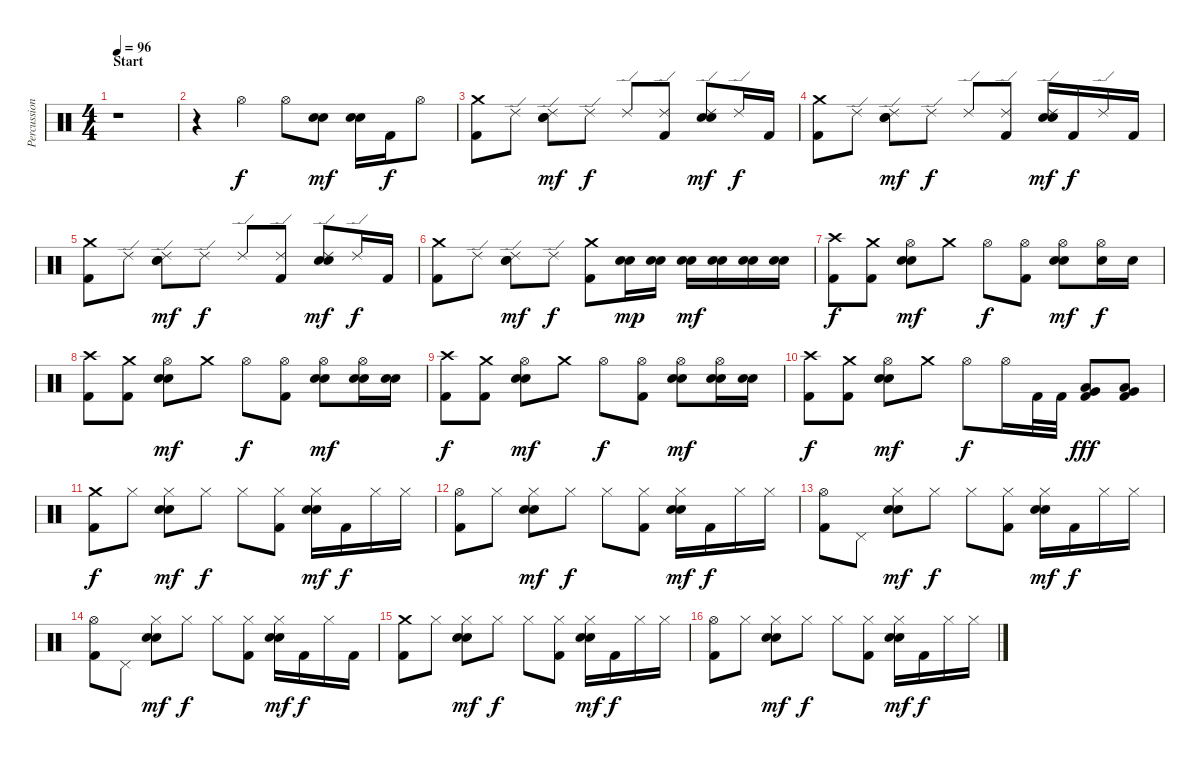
\track ("Percussions" "Percussion") {instrument percussion}
\staff {score}
\articulation defaults
\ts (4 4)
\section ("" "Start")
\tempo 96
\clef neutral
\ks c
r.1{dy f} |
r.4 "Hi-Hat (open)".4 "Hi-Hat (open)".8 ("Snare (hit) 2" "Electric Snare (hit)").8{dy mf} ("Snare (hit) 2" "Electric Snare (hit)").16 "Kick (hit) 2".16{dy f} "Hi-Hat (open)".8 |
("Crash medium (hit)" "Kick (hit) 2").8 "Ride (edge) 2".8 ("Ride (edge) 2" "Snare (hit) 2" "Electric Snare (hit)").8{dy mf} "Ride (edge) 2".8{dy f} "Ride (edge) 2".8 ("Ride (edge) 2" "Kick (hit) 2").8 ("Ride (edge) 2" "Snare (hit) 2" "Electric Snare (hit)").8{dy mf} "Ride (edge) 2".16{dy f} "Kick (hit) 2".16 |
("Crash medium (hit)" "Kick (hit) 2").8 "Ride (edge) 2".8 ("Ride (edge) 2" "Snare (hit) 2" "Electric Snare (hit)").8{dy mf} "Ride (edge) 2".8{dy f} "Ride (edge) 2".8 ("Ride (edge) 2" "Kick (hit) 2").8 ("Ride (edge) 2" "Snare (hit) 2" "Electric Snare (hit)").16{dy mf} "Kick (hit) 2".16{dy f} "Ride (edge) 2".16 "Kick (hit) 2".16 |
("Crash medium (hit)" "Kick (hit) 2").8 "Ride (edge) 2".8 ("Ride (edge) 2" "Snare (hit) 2" "Electric Snare (hit)").8{dy mf} "Ride (edge) 2".8{dy f} "Ride (edge) 2".8 ("Ride (edge) 2" "Kick (hit) 2").8 ("Ride (edge) 2" "Snare (hit) 2" "Electric Snare (hit)").8{dy mf} "Ride (edge) 2".16{dy f} "Kick (hit) 2".16 |
("Crash medium (hit)" "Kick (hit) 2").8 "Ride (edge) 2".8 ("Ride (edge) 2" "Snare (hit) 2" "Electric Snare (hit)").8{dy mf} "Ride (edge) 2".8{dy f} ("Crash medium (hit)" "Kick (hit) 2").8 ("Snare (hit) 2" "Electric Snare (hit)").16{dy mp} ("Snare (hit) 2" "Electric Snare (hit)").16 ("Snare (hit) 2" "Electric Snare (hit)").16{dy mf} ("Snare (hit) 2" "Electric Snare (hit)").16 ("Snare (hit) 2" "Electric Snare (hit)").16 ("Snare (hit) 2" "Electric Snare (hit)").16 |
("Crash high (hit)" "Kick (hit) 2").8{dy f} ("Crash medium (hit)" "Kick (hit) 2").8 ("Hi-Hat (open)" "Snare (hit) 2" "Electric Snare (hit)").8{dy mf} "Crash medium (hit)".8 "Hi-Hat (open)".8{dy f} ("Hi-Hat (open)" "Kick (hit) 2").8 ("Hi-Hat (open)" "Snare (hit) 2" "Electric Snare (hit)").8{dy mf} ("Hi-Hat (open)" "Snare (hit) 2").16{dy f} "Snare (hit) 2".16 |
("Crash high (hit)" "Kick (hit) 2").8 ("Crash medium (hit)" "Kick (hit) 2").8 ("Hi-Hat (open)" "Snare (hit) 2" "Electric Snare (hit)").8{dy mf} "Crash medium (hit)".8 "Hi-Hat (open)".8{dy f} ("Hi-Hat (open)" "Kick (hit) 2").8 ("Hi-Hat (open)" "Snare (hit) 2" "Electric Snare (hit)").8{dy mf} ("Hi-Hat (open)" "Snare (hit) 2" "Electric Snare (hit)").16 ("Snare (hit) 2" "Electric Snare (hit)").16 |
("Crash high (hit)" "Kick (hit) 2").8{dy f} ("Crash medium (hit)" "Kick (hit) 2").8 ("Hi-Hat (open)" "Snare (hit) 2" "Electric Snare (hit)").8{dy mf} "Crash medium (hit)".8 "Hi-Hat (open)".8{dy f} ("Hi-Hat (open)" "Kick (hit) 2").8 ("Hi-Hat (open)" "Snare (hit) 2" "Electric Snare (hit)").8{dy mf} ("Hi-Hat (open)" "Snare (hit) 2" "Electric Snare (hit)").16 ("Snare (hit) 2" "Electric Snare (hit)").16 |
("Crash high (hit)" "Kick (hit) 2").8{dy f} ("Crash medium (hit)" "Kick (hit) 2").8 ("Hi-Hat (open)" "Snare (hit) 2" "Electric Snare (hit)").8{dy mf} "Crash medium (hit)".8 "Hi-Hat (open)".8{dy f} "Hi-Hat (open)".16 "Kick (hit) 2".32 "Kick (hit) 2".32 ("Very Low Tom (hit)" "Low Floor Tom (hit)" "Kick (hit) 2").8{dy fff} ("Very Low Tom (hit)" "Low Floor Tom (hit)" "Kick (hit) 2").8 |
("Crash medium (hit)" "Kick (hit) 2").8{dy f} "Hi-Hat (closed)".8 ("Hi-Hat (closed)" "Snare (hit) 2" "Electric Snare (hit)").8{dy mf} "Hi-Hat (closed)".8{dy f} "Hi-Hat (closed)".8 ("Hi-Hat (closed)" "Kick (hit) 2").8 ("Hi-Hat (closed)" "Snare (hit) 2" "Electric Snare (hit)").16{dy mf} "Kick (hit) 2".16{dy f} "Hi-Hat (closed)".16 "Hi-Hat (closed)".16 |
("Hi-Hat (open)" "Kick (hit) 2").8 "Hi-Hat (closed)".8 ("Hi-Hat (closed)" "Snare (hit) 2" "Electric Snare (hit)").8{dy mf} "Hi-Hat (closed)".8{dy f} "Hi-Hat (closed)".8 ("Hi-Hat (closed)" "Kick (hit) 2").8 ("Hi-Hat (closed)" "Snare (hit) 2" "Electric Snare (hit)").16{dy mf} "Kick (hit) 2".16{dy f} "Hi-Hat (closed)".16 "Hi-Hat (closed)".16 |
("Hi-Hat (open)" "Kick (hit) 2").8 "Pedal Hi-Hat (hit)".8 ("Hi-Hat (closed)" "Snare (hit) 2" "Electric Snare (hit)").8{dy mf} "Hi-Hat (closed)".8{dy f} "Hi-Hat (closed)".8 ("Hi-Hat (closed)" "Kick (hit) 2").8 ("Hi-Hat (closed)" "Snare (hit) 2" "Electric Snare (hit)").16{dy mf} "Kick (hit) 2".16{dy f} "Hi-Hat (closed)".16 "Hi-Hat (closed)".16 |
("Hi-Hat (open)" "Kick (hit) 2").8 "Pedal Hi-Hat (hit)".8 ("Hi-Hat (closed)" "Snare (hit) 2" "Electric Snare (hit)").8{dy mf} "Hi-Hat (closed)".8{dy f} "Hi-Hat (closed)".8 ("Hi-Hat (closed)" "Kick (hit) 2").8 ("Hi-Hat (closed)" "Snare (hit) 2" "Electric Snare (hit)").16{dy mf} "Kick (hit) 2".16{dy f} "Hi-Hat (closed)".16 "Kick (hit) 2".16 |
("Crash medium (hit)" "Kick (hit) 2").8 "Hi-Hat (closed)".8 ("Hi-Hat (closed)" "Snare (hit) 2" "Electric Snare (hit)").8{dy mf} "Hi-Hat (closed)".8{dy f} "Hi-Hat (closed)".8 ("Hi-Hat (closed)" "Kick (hit) 2").8 ("Hi-Hat (closed)" "Snare (hit) 2" "Electric Snare (hit)").16{dy mf} "Kick (hit) 2".16{dy f} "Hi-Hat (closed)".16 "Hi-Hat (closed)".16 |
("Hi-Hat (open)" "Kick (hit) 2").8 "Hi-Hat (closed)".8 ("Hi-Hat (closed)" "Snare (hit) 2" "Electric Snare (hit)").8{dy mf} "Hi-Hat (closed)".8{dy f} "Hi-Hat (closed)".8 ("Hi-Hat (closed)" "Kick (hit) 2").8 ("Hi-Hat (closed)" "Snare (hit) 2" "Electric Snare (hit)").16{dy mf} "Kick (hit) 2".16{dy f} "Hi-Hat (closed)".16 "Hi-Hat (closed)".16
